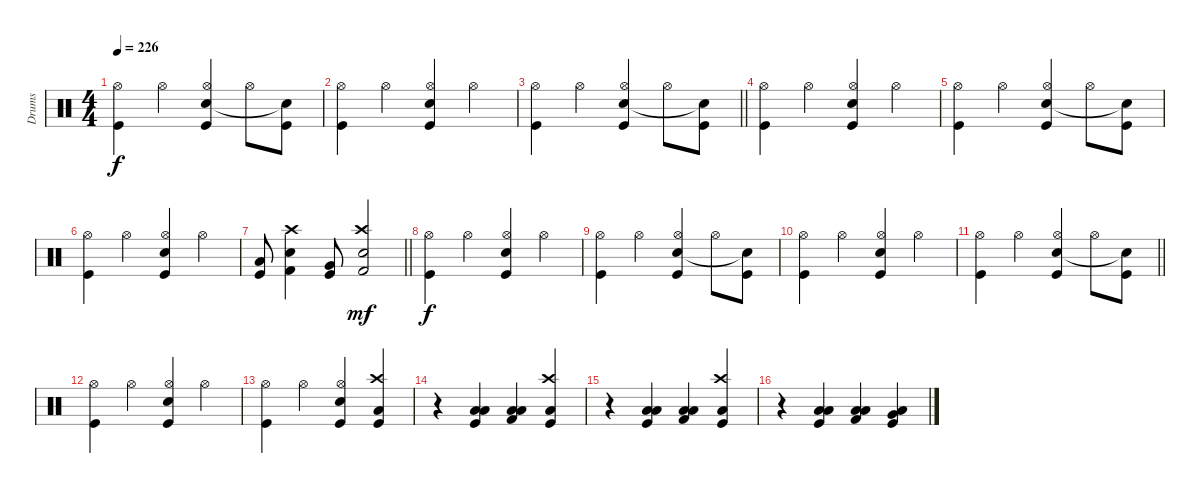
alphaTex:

\track ("Drums" "Drums") {instrument percussion}
\staff {score}
\articulation defaults
\ts (4 4)
\tempo 226
\clef neutral
\ks c
("Kick (hit)" "Hi-Hat (open)").4{dy f} "Hi-Hat (open)".4 ("Kick (hit)" "Snare (hit) 2" "Hi-Hat (open)").4 "Hi-Hat (open)".8 ("Kick (hit)" "Snare (hit)"{t}).8 |
("Kick (hit)" "Hi-Hat (open)").4 "Hi-Hat (open)".4 ("Kick (hit)" "Snare (hit) 2" "Hi-Hat (open)").4 "Hi-Hat (open)".4 |
\barLineRight lightlight
("Kick (hit)" "Hi-Hat (open)").4 "Hi-Hat (open)".4 ("Kick (hit)" "Snare (hit) 2" "Hi-Hat (open)").4 "Hi-Hat (open)".8 ("Kick (hit)" "Snare (hit)"{t}).8 |
("Kick (hit)" "Hi-Hat (open)").4 "Hi-Hat (open)".4 ("Kick (hit)" "Snare (hit) 2" "Hi-Hat (open)").4 "Hi-Hat (open)".4 |
("Kick (hit)" "Hi-Hat (open)").4 "Hi-Hat (open)".4 ("Kick (hit)" "Snare (hit) 2" "Hi-Hat (open)").4 "Hi-Hat (open)".8 ("Kick (hit)" "Snare (hit)"{t}).8 |
("Kick (hit)" "Hi-Hat (open)").4 "Hi-Hat (open)".4 ("Kick (hit)" "Snare (hit) 2" "Hi-Hat (open)").4 "Hi-Hat (open)".4 |
\barLineRight lightlight
("Kick (hit)" "Low Tom (hit)").8 ("Kick (hit) 2" "Snare (hit) 2" "Crash high (hit)").4 ("Kick (hit)" "Very Low Tom (hit)").8 ("Kick (hit) 2" "Electric Snare (hit)" "Crash high (hit)").2{dy mf} |
("Kick (hit)" "Hi-Hat (open)").4{dy f} "Hi-Hat (open)".4 ("Kick (hit)" "Snare (hit) 2" "Hi-Hat (open)").4 "Hi-Hat (open)".4 |
("Kick (hit)" "Hi-Hat (open)").4 "Hi-Hat (open)".4 ("Kick (hit)" "Snare (hit) 2" "Hi-Hat (open)").4 "Hi-Hat (open)".8 ("Kick (hit)" "Snare (hit)"{t}).8 |
("Kick (hit)" "Hi-Hat (open)").4 "Hi-Hat (open)".4 ("Kick (hit)" "Snare (hit) 2" "Hi-Hat (open)").4 "Hi-Hat (open)".4 |
\barLineRight lightlight
("Kick (hit)" "Hi-Hat (open)").4 "Hi-Hat (open)".4 ("Kick (hit)" "Snare (hit) 2" "Hi-Hat (open)").4 "Hi-Hat (open)".8 ("Kick (hit)" "Snare (hit)"{t}).8 |
("Kick (hit)" "Hi-Hat (open)").4 "Hi-Hat (open)".4 ("Kick (hit)" "Snare (hit) 2" "Hi-Hat (open)").4 "Hi-Hat (open)".4 |
("Kick (hit)" "Hi-Hat (open)").4 "Hi-Hat (open)".4 ("Kick (hit)" "Snare (hit) 2" "Hi-Hat (open)").4 ("Kick (hit)" "Low Floor Tom (hit)" "Crash high (hit)").4 |
r.4 ("Kick (hit)" "Low Floor Tom (hit)" "Low Tom (hit)").4 ("Kick (hit) 2" "Low Floor Tom (hit)" "Low Tom (hit)").4 ("Kick (hit)" "Low Floor Tom (hit)" "Crash high (hit)").4 |
r.4 ("Kick (hit)" "Low Floor Tom (hit)" "Low Tom (hit)").4 ("Kick (hit) 2" "Low Floor Tom (hit)" "Low Tom (hit)").4 ("Kick (hit)" "Low Floor Tom (hit)" "Crash high (hit)").4 |
r.4 ("Kick (hit)" "Low Floor Tom (hit)" "Low Tom (hit)").4 ("Kick (hit) 2" "Low Floor Tom (hit)" "Low Tom (hit)").4 ("Kick (hit)" "Low Floor Tom (hit)" "Very Low Tom (hit)").4
